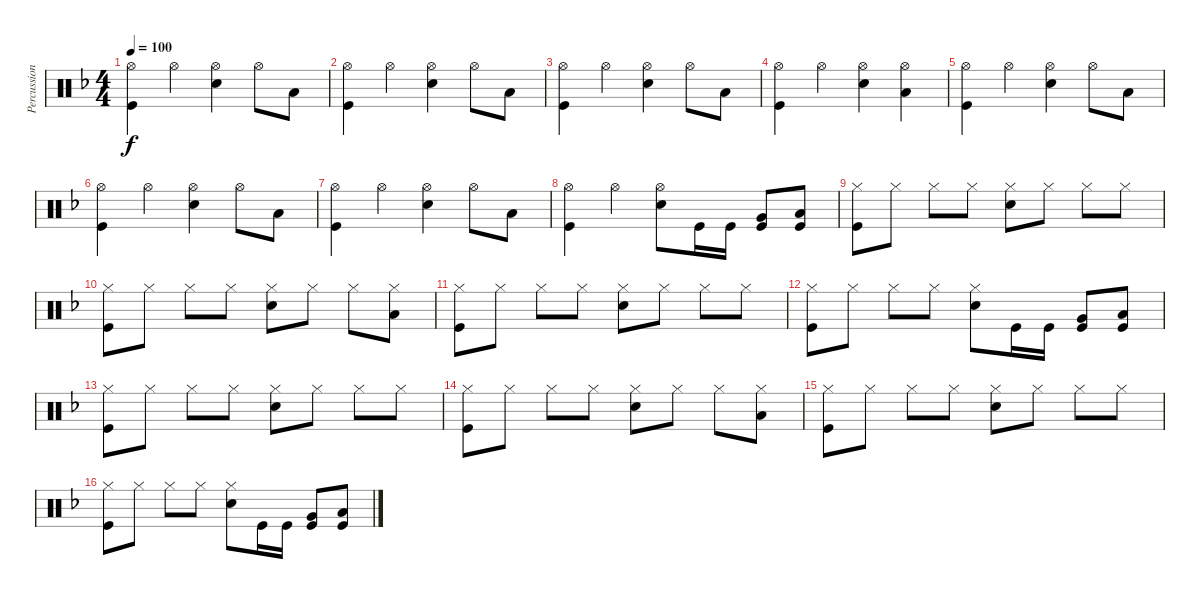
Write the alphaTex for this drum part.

\track ("Percussion" "Percussion") {instrument percussion}
\staff {score}
\articulation defaults
\ts (4 4)
\tempo 100
\clef neutral
\ks dminor
("Hi-Hat (open)" "Kick (hit)").4{dy f} "Hi-Hat (open)".4 ("Hi-Hat (open)" "Snare (hit) 2").4 "Hi-Hat (open)".8 "Low Tom (hit)".8 |
("Hi-Hat (open)" "Kick (hit)").4 "Hi-Hat (open)".4 ("Hi-Hat (open)" "Snare (hit) 2").4 "Hi-Hat (open)".8 "Low Tom (hit)".8 |
("Hi-Hat (open)" "Kick (hit)").4 "Hi-Hat (open)".4 ("Hi-Hat (open)" "Snare (hit) 2").4 "Hi-Hat (open)".8 "Low Tom (hit)".8 |
("Hi-Hat (open)" "Kick (hit)").4 "Hi-Hat (open)".4 ("Hi-Hat (open)" "Snare (hit) 2").4 ("Hi-Hat (open)" "Low Tom (hit)").4 |
("Hi-Hat (open)" "Kick (hit)").4 "Hi-Hat (open)".4 ("Hi-Hat (open)" "Snare (hit) 2").4 "Hi-Hat (open)".8 "Low Tom (hit)".8 |
("Hi-Hat (open)" "Kick (hit)").4 "Hi-Hat (open)".4 ("Hi-Hat (open)" "Snare (hit) 2").4 "Hi-Hat (open)".8 "Low Tom (hit)".8 |
("Hi-Hat (open)" "Kick (hit)").4 "Hi-Hat (open)".4 ("Hi-Hat (open)" "Snare (hit) 2").4 "Hi-Hat (open)".8 "Low Tom (hit)".8 |
("Hi-Hat (open)" "Kick (hit)").4 "Hi-Hat (open)".4 ("Hi-Hat (open)" "Snare (hit) 2").8 "Kick (hit)".16 "Kick (hit)".16 ("Very Low Tom (hit)" "Kick (hit)").8 ("Low Tom (hit)" "Kick (hit)").8 |
("Hi-Hat (closed)" "Kick (hit)").8 "Hi-Hat (closed)".8 "Hi-Hat (closed)".8 "Hi-Hat (closed)".8 ("Hi-Hat (closed)" "Snare (hit) 2").8 "Hi-Hat (closed)".8 "Hi-Hat (closed)".8 "Hi-Hat (closed)".8 |
("Hi-Hat (closed)" "Kick (hit)").8 "Hi-Hat (closed)".8 "Hi-Hat (closed)".8 "Hi-Hat (closed)".8 ("Hi-Hat (closed)" "Snare (hit) 2").8 "Hi-Hat (closed)".8 "Hi-Hat (closed)".8 ("Hi-Hat (closed)" "Low Tom (hit)").8 |
("Hi-Hat (closed)" "Kick (hit)").8 "Hi-Hat (closed)".8 "Hi-Hat (closed)".8 "Hi-Hat (closed)".8 ("Hi-Hat (closed)" "Snare (hit) 2").8 "Hi-Hat (closed)".8 "Hi-Hat (closed)".8 "Hi-Hat (closed)".8 |
("Hi-Hat (closed)" "Kick (hit)").8 "Hi-Hat (closed)".8 "Hi-Hat (closed)".8 "Hi-Hat (closed)".8 ("Hi-Hat (closed)" "Snare (hit) 2").8 "Kick (hit)".16 "Kick (hit)".16 ("Very Low Tom (hit)" "Kick (hit)").8 ("Low Tom (hit)" "Kick (hit)").8 |
("Hi-Hat (closed)" "Kick (hit)").8 "Hi-Hat (closed)".8 "Hi-Hat (closed)".8 "Hi-Hat (closed)".8 ("Hi-Hat (closed)" "Snare (hit) 2").8 "Hi-Hat (closed)".8 "Hi-Hat (closed)".8 "Hi-Hat (closed)".8 |
("Hi-Hat (closed)" "Kick (hit)").8 "Hi-Hat (closed)".8 "Hi-Hat (closed)".8 "Hi-Hat (closed)".8 ("Hi-Hat (closed)" "Snare (hit) 2").8 "Hi-Hat (closed)".8 "Hi-Hat (closed)".8 ("Hi-Hat (closed)" "Low Tom (hit)").8 |
("Hi-Hat (closed)" "Kick (hit)").8 "Hi-Hat (closed)".8 "Hi-Hat (closed)".8 "Hi-Hat (closed)".8 ("Hi-Hat (closed)" "Snare (hit) 2").8 "Hi-Hat (closed)".8 "Hi-Hat (closed)".8 "Hi-Hat (closed)".8 |
("Hi-Hat (closed)" "Kick (hit)").8 "Hi-Hat (closed)".8 "Hi-Hat (closed)".8 "Hi-Hat (closed)".8 ("Hi-Hat (closed)" "Snare (hit) 2").8 "Kick (hit)".16 "Kick (hit)".16 ("Very Low Tom (hit)" "Kick (hit)").8 ("Low Tom (hit)" "Kick (hit)").8
